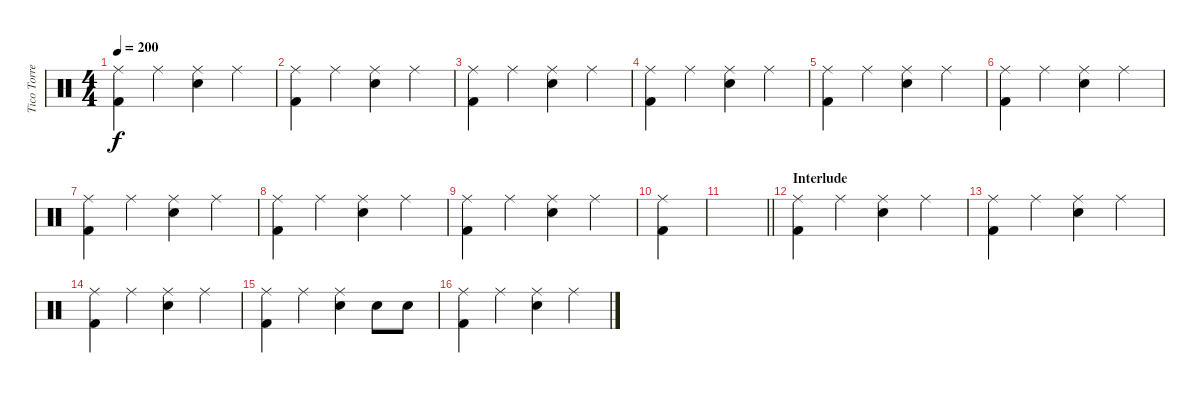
\track ("Tico Torres" "Tico Torre") {instrument percussion}
\staff {score}
\articulation defaults
\ts (4 4)
\tempo 200
\clef neutral
\ks c
("Ride (middle)" "Kick (hit) 2").4{dy f} "Ride (middle)".4 ("Snare (hit) 2" "Ride (middle)").4 "Ride (middle)".4 |
("Ride (middle)" "Kick (hit) 2").4 "Ride (middle)".4 ("Snare (hit) 2" "Ride (middle)").4 "Ride (middle)".4 |
("Ride (middle)" "Kick (hit) 2").4 "Ride (middle)".4 ("Snare (hit) 2" "Ride (middle)").4 "Ride (middle)".4 |
("Ride (middle)" "Kick (hit) 2").4 "Ride (middle)".4 ("Snare (hit) 2" "Ride (middle)").4 "Ride (middle)".4 |
("Ride (middle)" "Kick (hit) 2").4 "Ride (middle)".4 ("Snare (hit) 2" "Ride (middle)").4 "Ride (middle)".4 |
("Ride (middle)" "Kick (hit) 2").4 "Ride (middle)".4 ("Snare (hit) 2" "Ride (middle)").4 "Ride (middle)".4 |
("Ride (middle)" "Kick (hit) 2").4 "Ride (middle)".4 ("Snare (hit) 2" "Ride (middle)").4 "Ride (middle)".4 |
("Ride (middle)" "Kick (hit) 2").4 "Ride (middle)".4 ("Snare (hit) 2" "Ride (middle)").4 "Ride (middle)".4 |
("Ride (middle)" "Kick (hit) 2").4 "Ride (middle)".4 ("Snare (hit) 2" "Ride (middle)").4 "Ride (middle)".4 |
("Ride (middle)" "Kick (hit) 2").4 |
\barLineRight lightlight
|
\section ("" "Interlude")
("Ride (middle)" "Kick (hit) 2").4 "Ride (middle)".4 ("Snare (hit) 2" "Ride (middle)").4 "Ride (middle)".4 |
("Ride (middle)" "Kick (hit) 2").4 "Ride (middle)".4 ("Snare (hit) 2" "Ride (middle)").4 "Ride (middle)".4 |
("Ride (middle)" "Kick (hit) 2").4 "Ride (middle)".4 ("Snare (hit) 2" "Ride (middle)").4 "Ride (middle)".4 |
("Ride (middle)" "Kick (hit) 2").4 "Ride (middle)".4 ("Snare (hit) 2" "Ride (middle)").4 "Snare (hit) 2".8 "Snare (hit) 2".8 |
("Ride (middle)" "Kick (hit) 2").4 "Ride (middle)".4 ("Snare (hit) 2" "Ride (middle)").4 "Ride (middle)".4
